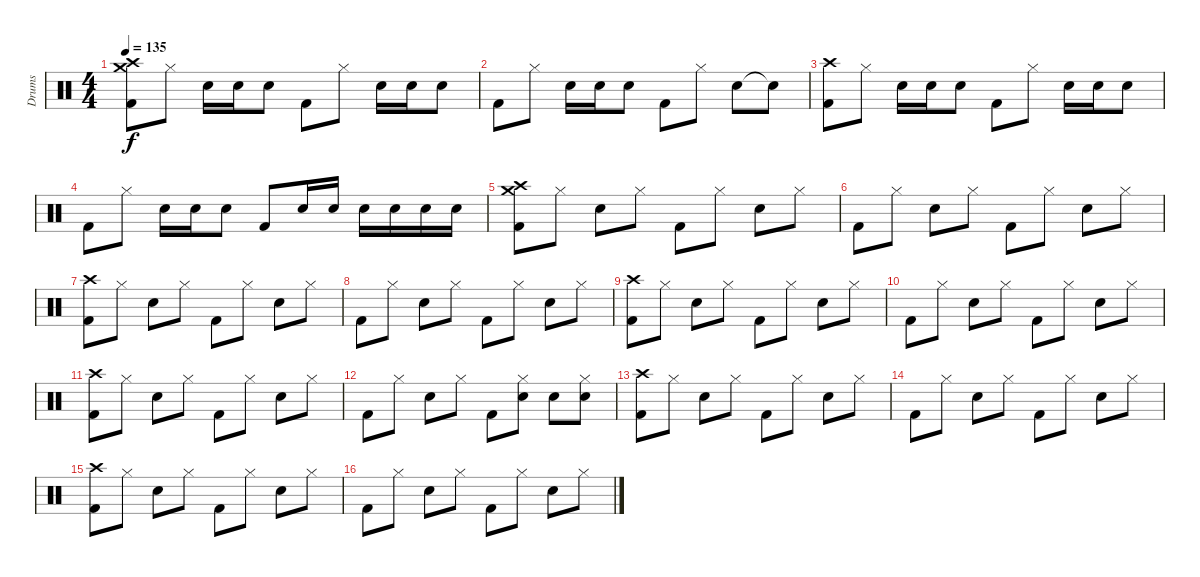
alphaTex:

\track ("Drums" "Drums") {instrument percussion}
\staff {score}
\articulation defaults
\ts (4 4)
\tempo 135
\clef neutral
\ks c
("Crash medium (hit)" "Crash high (hit)" "Kick (hit) 2").8{dy f} "Hi-Hat (closed)".8 "Snare (hit) 2".16 "Snare (hit) 2".16 "Snare (hit) 2".8 "Kick (hit) 2".8 "Hi-Hat (closed)".8 "Snare (hit) 2".16 "Snare (hit) 2".16 "Snare (hit) 2".8 |
"Kick (hit) 2".8 "Hi-Hat (closed)".8 "Snare (hit) 2".16 "Snare (hit) 2".16 "Snare (hit) 2".8 "Kick (hit) 2".8 "Hi-Hat (closed)".8 "Snare (hit) 2".8 "Snare (hit)"{t}.8 |
("Crash high (hit)" "Kick (hit) 2").8 "Hi-Hat (closed)".8 "Snare (hit) 2".16 "Snare (hit) 2".16 "Snare (hit) 2".8 "Kick (hit) 2".8 "Hi-Hat (closed)".8 "Snare (hit) 2".16 "Snare (hit) 2".16 "Snare (hit) 2".8 |
"Kick (hit) 2".8 "Hi-Hat (closed)".8 "Snare (hit) 2".16 "Snare (hit) 2".16 "Snare (hit) 2".8 "Kick (hit) 2".8 "Snare (hit) 2".16 "Snare (hit) 2".16 "Snare (hit) 2".16 "Snare (hit) 2".16 "Snare (hit) 2".16 "Snare (hit) 2".16 |
("Crash medium (hit)" "Crash high (hit)" "Kick (hit) 2").8 "Hi-Hat (closed)".8 "Snare (hit) 2".8 "Hi-Hat (closed)".8 "Kick (hit) 2".8 "Hi-Hat (closed)".8 "Snare (hit) 2".8 "Hi-Hat (closed)".8 |
"Kick (hit) 2".8 "Hi-Hat (closed)".8 "Snare (hit) 2".8 "Hi-Hat (closed)".8 "Kick (hit) 2".8 "Hi-Hat (closed)".8 "Snare (hit) 2".8 "Hi-Hat (closed)".8 |
("Crash high (hit)" "Kick (hit) 2").8 "Hi-Hat (closed)".8 "Snare (hit) 2".8 "Hi-Hat (closed)".8 "Kick (hit) 2".8 "Hi-Hat (closed)".8 "Snare (hit) 2".8 "Hi-Hat (closed)".8 |
"Kick (hit) 2".8 "Hi-Hat (closed)".8 "Snare (hit) 2".8 "Hi-Hat (closed)".8 "Kick (hit) 2".8 "Hi-Hat (closed)".8 "Snare (hit) 2".8 "Hi-Hat (closed)".8 |
("Crash high (hit)" "Kick (hit) 2").8 "Hi-Hat (closed)".8 "Snare (hit) 2".8 "Hi-Hat (closed)".8 "Kick (hit) 2".8 "Hi-Hat (closed)".8 "Snare (hit) 2".8 "Hi-Hat (closed)".8 |
"Kick (hit) 2".8 "Hi-Hat (closed)".8 "Snare (hit) 2".8 "Hi-Hat (closed)".8 "Kick (hit) 2".8 "Hi-Hat (closed)".8 "Snare (hit) 2".8 "Hi-Hat (closed)".8 |
("Crash high (hit)" "Kick (hit) 2").8 "Hi-Hat (closed)".8 "Snare (hit) 2".8 "Hi-Hat (closed)".8 "Kick (hit) 2".8 "Hi-Hat (closed)".8 "Snare (hit) 2".8 "Hi-Hat (closed)".8 |
"Kick (hit) 2".8 "Hi-Hat (closed)".8 "Snare (hit) 2".8 "Hi-Hat (closed)".8 "Kick (hit) 2".8 ("Hi-Hat (closed)" "Snare (hit) 2").8 "Snare (hit) 2".8 ("Hi-Hat (closed)" "Snare (hit) 2").8 |
("Crash high (hit)" "Kick (hit) 2").8 "Hi-Hat (closed)".8 "Snare (hit) 2".8 "Hi-Hat (closed)".8 "Kick (hit) 2".8 "Hi-Hat (closed)".8 "Snare (hit) 2".8 "Hi-Hat (closed)".8 |
"Kick (hit) 2".8 "Hi-Hat (closed)".8 "Snare (hit) 2".8 "Hi-Hat (closed)".8 "Kick (hit) 2".8 "Hi-Hat (closed)".8 "Snare (hit) 2".8 "Hi-Hat (closed)".8 |
("Crash high (hit)" "Kick (hit) 2").8 "Hi-Hat (closed)".8 "Snare (hit) 2".8 "Hi-Hat (closed)".8 "Kick (hit) 2".8 "Hi-Hat (closed)".8 "Snare (hit) 2".8 "Hi-Hat (closed)".8 |
"Kick (hit) 2".8 "Hi-Hat (closed)".8 "Snare (hit) 2".8 "Hi-Hat (closed)".8 "Kick (hit) 2".8 "Hi-Hat (closed)".8 "Snare (hit) 2".8 "Hi-Hat (closed)".8
